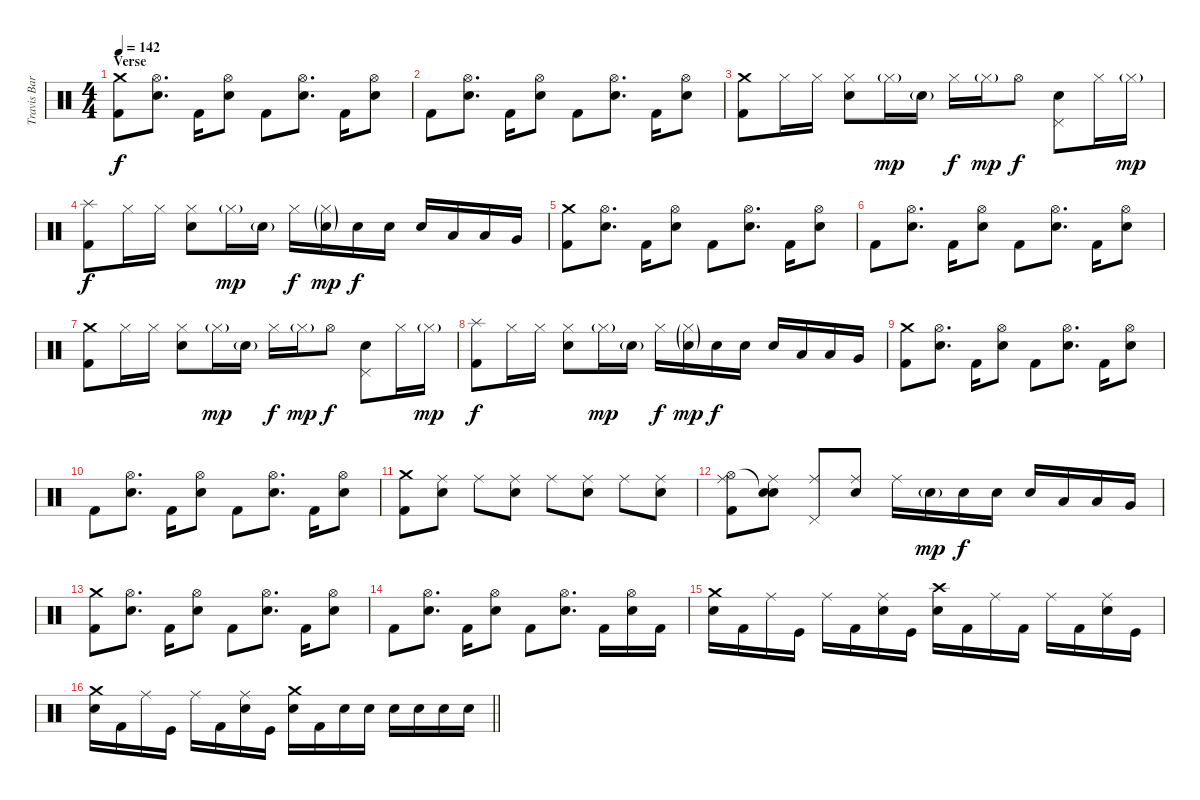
\track ("Travis Barker - Drums" "Travis Bar") {instrument percussion}
\staff {score}
\articulation defaults
\ts (4 4)
\section ("" "Verse")
\tempo 142
\clef neutral
\ks c
("Crash medium (hit)" "Kick (hit) 2").8{dy f} ("Hi-Hat (open)" "Electric Snare (hit)").8{d} "Kick (hit) 2".16 ("Hi-Hat (open)" "Electric Snare (hit)").8 "Kick (hit) 2".8 ("Hi-Hat (open)" "Electric Snare (hit)").8{d} "Kick (hit) 2".16 ("Hi-Hat (open)" "Electric Snare (hit)").8 |
"Kick (hit) 2".8 ("Hi-Hat (open)" "Electric Snare (hit)").8{d} "Kick (hit) 2".16 ("Hi-Hat (open)" "Electric Snare (hit)").8 "Kick (hit) 2".8 ("Hi-Hat (open)" "Electric Snare (hit)").8{d} "Kick (hit) 2".16 ("Hi-Hat (open)" "Electric Snare (hit)").8 |
("Crash medium (hit)" "Kick (hit) 2").8 "Hi-Hat (closed)".16 "Hi-Hat (closed)".16 ("Hi-Hat (closed)" "Electric Snare (hit)").8 "Hi-Hat (closed)"{g}.16{dy mp} "Electric Snare (hit)"{g}.16 "Hi-Hat (closed)".16{dy f} "Hi-Hat (closed)"{g}.16{dy mp} "Hi-Hat (open)".8{dy f} ("Pedal Hi-Hat (hit)" "Electric Snare (hit)").8 "Hi-Hat (closed)".16 "Hi-Hat (closed)"{g}.16{dy mp} |
("Splash (hit)" "Kick (hit) 2").8{dy f} "Hi-Hat (closed)".16 "Hi-Hat (closed)".16 ("Hi-Hat (closed)" "Electric Snare (hit)").8 "Hi-Hat (closed)"{g}.16{dy mp} "Electric Snare (hit)"{g}.16 "Hi-Hat (closed)".16{dy f} ("Hi-Hat (closed)"{g} "Electric Snare (hit)"{g}).16{dy mp} "Electric Snare (hit)".16{dy f} "Electric Snare (hit)".16 "Electric Snare (hit)".16 "Low Tom (hit)".16 "Low Tom (hit)".16 "Very Low Tom (hit)".16 |
("Crash medium (hit)" "Kick (hit) 2").8 ("Hi-Hat (open)" "Electric Snare (hit)").8{d} "Kick (hit) 2".16 ("Hi-Hat (open)" "Electric Snare (hit)").8 "Kick (hit) 2".8 ("Hi-Hat (open)" "Electric Snare (hit)").8{d} "Kick (hit) 2".16 ("Hi-Hat (open)" "Electric Snare (hit)").8 |
"Kick (hit) 2".8 ("Hi-Hat (open)" "Electric Snare (hit)").8{d} "Kick (hit) 2".16 ("Hi-Hat (open)" "Electric Snare (hit)").8 "Kick (hit) 2".8 ("Hi-Hat (open)" "Electric Snare (hit)").8{d} "Kick (hit) 2".16 ("Hi-Hat (open)" "Electric Snare (hit)").8 |
("Crash medium (hit)" "Kick (hit) 2").8 "Hi-Hat (closed)".16 "Hi-Hat (closed)".16 ("Hi-Hat (closed)" "Electric Snare (hit)").8 "Hi-Hat (closed)"{g}.16{dy mp} "Electric Snare (hit)"{g}.16 "Hi-Hat (closed)".16{dy f} "Hi-Hat (closed)"{g}.16{dy mp} "Hi-Hat (open)".8{dy f} ("Pedal Hi-Hat (hit)" "Electric Snare (hit)").8 "Hi-Hat (closed)".16 "Hi-Hat (closed)"{g}.16{dy mp} |
("Splash (hit)" "Kick (hit) 2").8{dy f} "Hi-Hat (closed)".16 "Hi-Hat (closed)".16 ("Hi-Hat (closed)" "Electric Snare (hit)").8 "Hi-Hat (closed)"{g}.16{dy mp} "Electric Snare (hit)"{g}.16 "Hi-Hat (closed)".16{dy f} ("Hi-Hat (closed)"{g} "Electric Snare (hit)"{g}).16{dy mp} "Electric Snare (hit)".16{dy f} "Electric Snare (hit)".16 "Electric Snare (hit)".16 "Low Tom (hit)".16 "Low Tom (hit)".16 "Very Low Tom (hit)".16 |
("Crash medium (hit)" "Kick (hit) 2").8 ("Hi-Hat (open)" "Electric Snare (hit)").8{d} "Kick (hit) 2".16 ("Hi-Hat (open)" "Electric Snare (hit)").8 "Kick (hit) 2".8 ("Hi-Hat (open)" "Electric Snare (hit)").8{d} "Kick (hit) 2".16 ("Hi-Hat (open)" "Electric Snare (hit)").8 |
"Kick (hit) 2".8 ("Hi-Hat (open)" "Electric Snare (hit)").8{d} "Kick (hit) 2".16 ("Hi-Hat (open)" "Electric Snare (hit)").8 "Kick (hit) 2".8 ("Hi-Hat (open)" "Electric Snare (hit)").8{d} "Kick (hit) 2".16 ("Hi-Hat (open)" "Electric Snare (hit)").8 |
("Crash medium (hit)" "Kick (hit) 2").8 ("Ride (middle)" "Electric Snare (hit)").8 "Ride (middle)".8 ("Ride (middle)" "Electric Snare (hit)").8 "Ride (middle)".8 ("Ride (middle)" "Electric Snare (hit)").8 "Ride (middle)".8 ("Ride (middle)" "Electric Snare (hit)").8 |
("Ride (middle)" "Hi-Hat (open)" "Kick (hit) 2").8 ("Ride (middle)" "Snare (hit)"{t} "Electric Snare (hit)").8 ("Ride (middle)" "Pedal Hi-Hat (hit)").8 ("Ride (middle)" "Electric Snare (hit)").8 "Ride (middle)".16 "Electric Snare (hit)"{g}.16{dy mp} "Electric Snare (hit)".16{dy f} "Electric Snare (hit)".16 "Electric Snare (hit)".16 "Low Tom (hit)".16 "Low Tom (hit)".16 "Very Low Tom (hit)".16 |
("Crash medium (hit)" "Kick (hit) 2").8 ("Hi-Hat (open)" "Electric Snare (hit)").8{d} "Kick (hit) 2".16 ("Hi-Hat (open)" "Electric Snare (hit)").8 "Kick (hit) 2".8 ("Hi-Hat (open)" "Electric Snare (hit)").8{d} "Kick (hit) 2".16 ("Hi-Hat (open)" "Electric Snare (hit)").8 |
"Kick (hit) 2".8 ("Hi-Hat (open)" "Electric Snare (hit)").8{d} "Kick (hit) 2".16 ("Hi-Hat (open)" "Electric Snare (hit)").8 "Kick (hit) 2".8 ("Hi-Hat (open)" "Electric Snare (hit)").8{d} "Kick (hit) 2".16 ("Hi-Hat (open)" "Electric Snare (hit)").16 "Kick (hit) 2".16 |
("Crash medium (hit)" "Electric Snare (hit)").16 "Kick (hit) 2".16 "Ride (middle)".16 "Kick (hit)".16 "Ride (middle)".16 "Kick (hit) 2".16 ("Ride (middle)" "Electric Snare (hit)").16 "Kick (hit)".16 ("Crash high (hit)" "Electric Snare (hit)").16 "Kick (hit) 2".16 "Ride (middle)".16 "Kick (hit) 2".16 "Ride (middle)".16 "Kick (hit) 2".16 ("Ride (middle)" "Electric Snare (hit)").16 "Kick (hit)".16 |
\barLineRight lightlight
("Crash medium (hit)" "Electric Snare (hit)").16 "Kick (hit) 2".16 "Ride (middle)".16 "Kick (hit)".16 "Ride (middle)".16 "Kick (hit) 2".16 ("Ride (middle)" "Electric Snare (hit)").16 "Kick (hit)".16 ("Crash medium (hit)" "Electric Snare (hit)").16 "Kick (hit) 2".16 "Electric Snare (hit)".16 "Electric Snare (hit)".16 "Electric Snare (hit)".16 "Electric Snare (hit)".16 "Electric Snare (hit)".16 "Electric Snare (hit)".16
